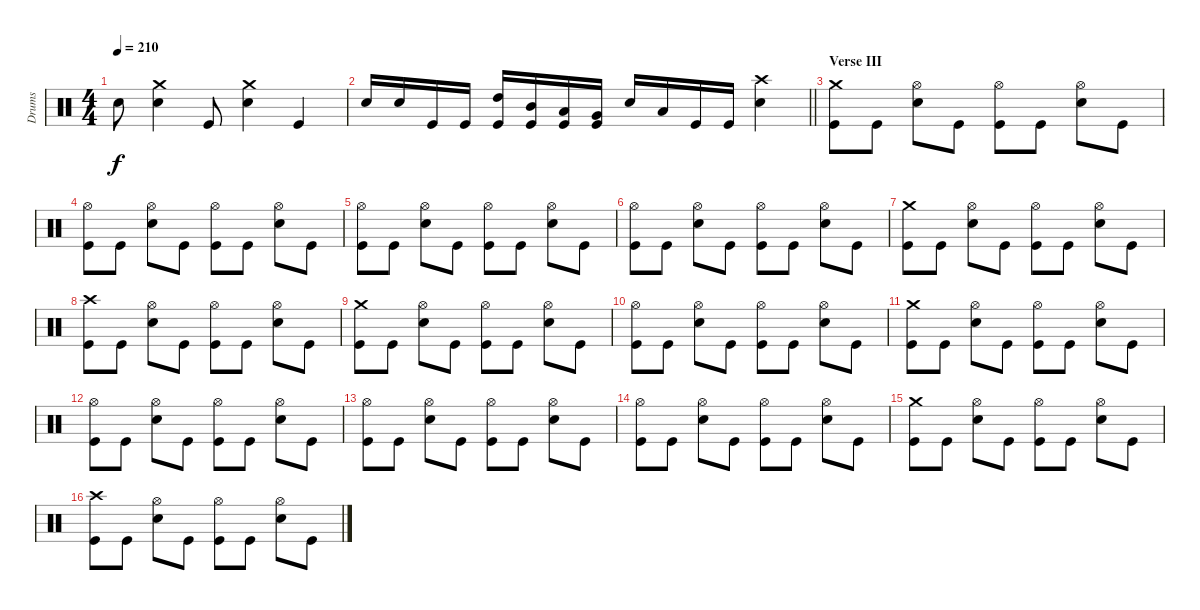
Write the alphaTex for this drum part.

\track ("Drums" "Drums") {instrument percussion}
\staff {score}
\articulation defaults
\ts (4 4)
\tempo 210
\clef neutral
\ks c "Snare (hit) 2".8{dy f}
("Crash medium (hit)" "Snare (hit) 2").4 "Kick (hit)".8 ("Crash medium (hit)" "Snare (hit) 2").4 "Kick (hit)".4 |
\barLineRight lightlight "Snare (hit) 2".16 "Snare (hit) 2".16 "Kick (hit)".16 "Kick (hit)".16
("High Tom (hit)" "Kick (hit)").16 ("Mid Tom (hit)" "Kick (hit)").16 ("Low Tom (hit)" "Kick (hit)").16 ("Very Low Tom (hit)" "Kick (hit)").16 "Snare (hit) 2".16 "Low Floor Tom (hit)".16 "Kick (hit)".16 "Kick (hit)".16 ("Crash high (hit)" "Snare (hit) 2").4 |
\section ("" "Verse III")
("Crash medium (hit)" "Kick (hit)").8 "Kick (hit)".8 ("Hi-Hat (open)" "Snare (hit) 2").8 "Kick (hit)".8 ("Hi-Hat (open)" "Kick (hit)").8 "Kick (hit)".8 ("Hi-Hat (open)" "Snare (hit) 2").8 "Kick (hit)".8 |
("Hi-Hat (open)" "Kick (hit)").8 "Kick (hit)".8 ("Hi-Hat (open)" "Snare (hit) 2").8 "Kick (hit)".8 ("Hi-Hat (open)" "Kick (hit)").8 "Kick (hit)".8 ("Hi-Hat (open)" "Snare (hit) 2").8 "Kick (hit)".8 |
("Hi-Hat (open)" "Kick (hit)").8 "Kick (hit)".8 ("Hi-Hat (open)" "Snare (hit) 2").8 "Kick (hit)".8 ("Hi-Hat (open)" "Kick (hit)").8 "Kick (hit)".8 ("Hi-Hat (open)" "Snare (hit) 2").8 "Kick (hit)".8 |
("Hi-Hat (open)" "Kick (hit)").8 "Kick (hit)".8 ("Hi-Hat (open)" "Snare (hit) 2").8 "Kick (hit)".8 ("Hi-Hat (open)" "Kick (hit)").8 "Kick (hit)".8 ("Hi-Hat (open)" "Snare (hit) 2").8 "Kick (hit)".8 |
("Crash medium (hit)" "Kick (hit)").8 "Kick (hit)".8 ("Hi-Hat (open)" "Snare (hit) 2").8 "Kick (hit)".8 ("Hi-Hat (open)" "Kick (hit)").8 "Kick (hit)".8 ("Hi-Hat (open)" "Snare (hit) 2").8 "Kick (hit)".8 |
("Crash high (hit)" "Kick (hit)").8 "Kick (hit)".8 ("Hi-Hat (open)" "Snare (hit) 2").8 "Kick (hit)".8 ("Hi-Hat (open)" "Kick (hit)").8 "Kick (hit)".8 ("Hi-Hat (open)" "Snare (hit) 2").8 "Kick (hit)".8 |
("Crash medium (hit)" "Kick (hit)").8 "Kick (hit)".8 ("Hi-Hat (open)" "Snare (hit) 2").8 "Kick (hit)".8 ("Hi-Hat (open)" "Kick (hit)").8 "Kick (hit)".8 ("Hi-Hat (open)" "Snare (hit) 2").8 "Kick (hit)".8 |
("Hi-Hat (open)" "Kick (hit)").8 "Kick (hit)".8 ("Hi-Hat (open)" "Snare (hit) 2").8 "Kick (hit)".8 ("Hi-Hat (open)" "Kick (hit)").8 "Kick (hit)".8 ("Hi-Hat (open)" "Snare (hit) 2").8 "Kick (hit)".8 |
("Crash medium (hit)" "Kick (hit)").8 "Kick (hit)".8 ("Hi-Hat (open)" "Snare (hit) 2").8 "Kick (hit)".8 ("Hi-Hat (open)" "Kick (hit)").8 "Kick (hit)".8 ("Hi-Hat (open)" "Snare (hit) 2").8 "Kick (hit)".8 |
("Hi-Hat (open)" "Kick (hit)").8 "Kick (hit)".8 ("Hi-Hat (open)" "Snare (hit) 2").8 "Kick (hit)".8 ("Hi-Hat (open)" "Kick (hit)").8 "Kick (hit)".8 ("Hi-Hat (open)" "Snare (hit) 2").8 "Kick (hit)".8 |
("Hi-Hat (open)" "Kick (hit)").8 "Kick (hit)".8 ("Hi-Hat (open)" "Snare (hit) 2").8 "Kick (hit)".8 ("Hi-Hat (open)" "Kick (hit)").8 "Kick (hit)".8 ("Hi-Hat (open)" "Snare (hit) 2").8 "Kick (hit)".8 |
("Hi-Hat (open)" "Kick (hit)").8 "Kick (hit)".8 ("Hi-Hat (open)" "Snare (hit) 2").8 "Kick (hit)".8 ("Hi-Hat (open)" "Kick (hit)").8 "Kick (hit)".8 ("Hi-Hat (open)" "Snare (hit) 2").8 "Kick (hit)".8 |
("Crash medium (hit)" "Kick (hit)").8 "Kick (hit)".8 ("Hi-Hat (open)" "Snare (hit) 2").8 "Kick (hit)".8 ("Hi-Hat (open)" "Kick (hit)").8 "Kick (hit)".8 ("Hi-Hat (open)" "Snare (hit) 2").8 "Kick (hit)".8 |
("Crash high (hit)" "Kick (hit)").8 "Kick (hit)".8 ("Hi-Hat (open)" "Snare (hit) 2").8 "Kick (hit)".8 ("Hi-Hat (open)" "Kick (hit)").8 "Kick (hit)".8 ("Hi-Hat (open)" "Snare (hit) 2").8 "Kick (hit)".8
